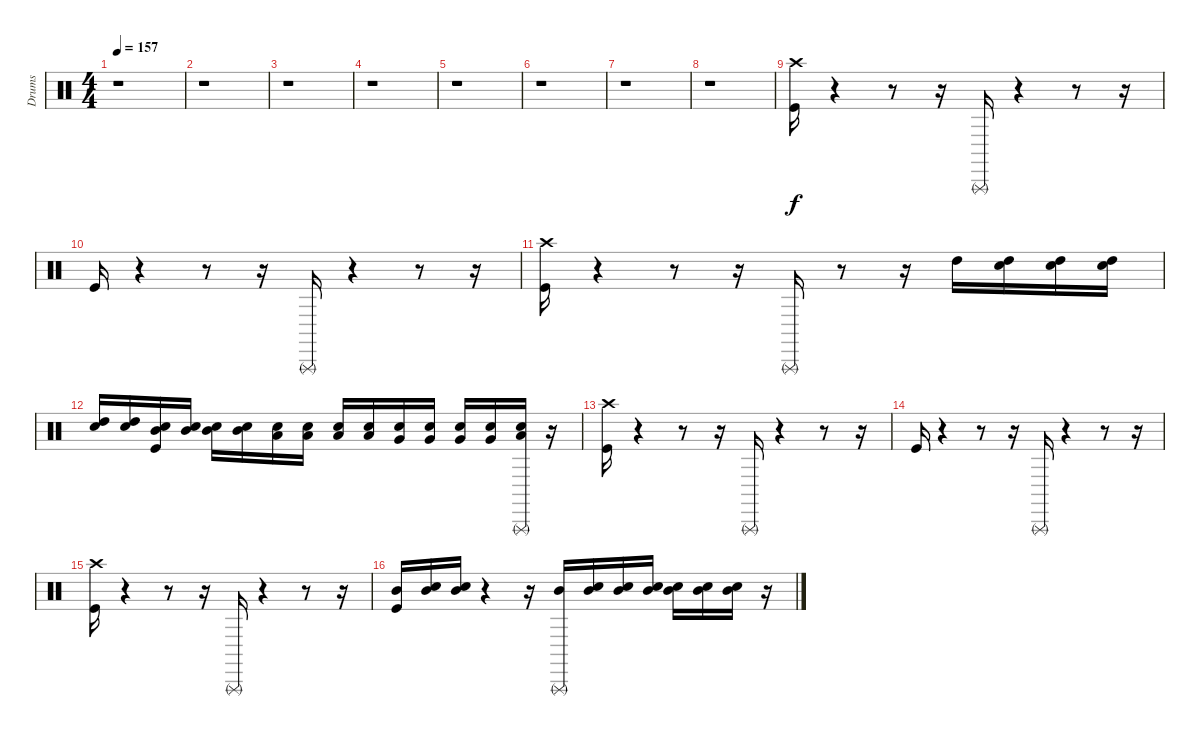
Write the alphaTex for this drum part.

\track ("Drums" "Drums") {instrument percussion}
\staff {score}
\articulation defaults
\ts (4 4)
\tempo 157
\clef neutral
\ks c
r.1{dy f} |
r.1 |
r.1 |
r.1 |
r.1 |
r.1 |
r.1 |
r.1 |
("Kick (hit)" "Crash high (hit)").16 r.4 r.8 r.16 "Triangle (rnute)".16 r.4 r.8 r.16 |
"Kick (hit)".16 r.4 r.8 r.16 "Triangle (rnute)".16 r.4 r.8 r.16 |
("Kick (hit)" "Crash high (hit)").16 r.4 r.8 r.16 "Triangle (rnute)".16 r.8 r.16 "High Tom (hit)".16 ("Snare (hit)" "High Tom (hit)").16 ("Snare (hit)" "High Tom (hit)").16 ("Snare (hit)" "High Tom (hit)").16 |
("Snare (hit)" "High Tom (hit)").16 ("Snare (hit)" "High Tom (hit)").16 ("Snare (hit)" "Mid Tom (hit)" "Kick (hit)").16 ("Snare (hit)" "Mid Tom (hit)").16 ("Snare (hit)" "Mid Tom (hit)").16 ("Snare (hit)" "Mid Tom (hit)").16 ("Snare (hit)" "Low Tom (hit)").16 ("Snare (hit)" "Low Tom (hit)").16 ("Snare (hit)" "Low Tom (hit)").16 ("Snare (hit)" "Low Tom (hit)").16 ("Snare (hit)" "Very Low Tom (hit)").16 ("Snare (hit)" "Very Low Tom (hit)").16 ("Snare (hit)" "Very Low Tom (hit)").16 ("Snare (hit)" "Very Low Tom (hit)").16 ("Snare (hit)" "Low Floor Tom (hit)" "Triangle (rnute)").16 r.16 |
("Kick (hit)" "Crash high (hit)").16 r.4 r.8 r.16 "Triangle (rnute)".16 r.4 r.8 r.16 |
"Kick (hit)".16 r.4 r.8 r.16 "Triangle (rnute)".16 r.4 r.8 r.16 |
("Crash high (hit)" "Kick (hit)").16 r.4 r.8 r.16 "Triangle (rnute)".16 r.4 r.8 r.16 |
("Kick (hit)" "Mid Tom (hit)").16 ("Snare (hit)" "Mid Tom (hit)").16 ("Snare (hit)" "Mid Tom (hit)").16 r.4 r.16 ("Mid Tom (hit)" "Triangle (rnute)").16 ("Snare (hit)" "Mid Tom (hit)").16 ("Snare (hit)" "Mid Tom (hit)").16 ("Snare (hit)" "Mid Tom (hit)").16 ("Snare (hit)" "Mid Tom (hit)").16 ("Snare (hit)" "Mid Tom (hit)").16 ("Snare (hit)" "Mid Tom (hit)").16 r.16
